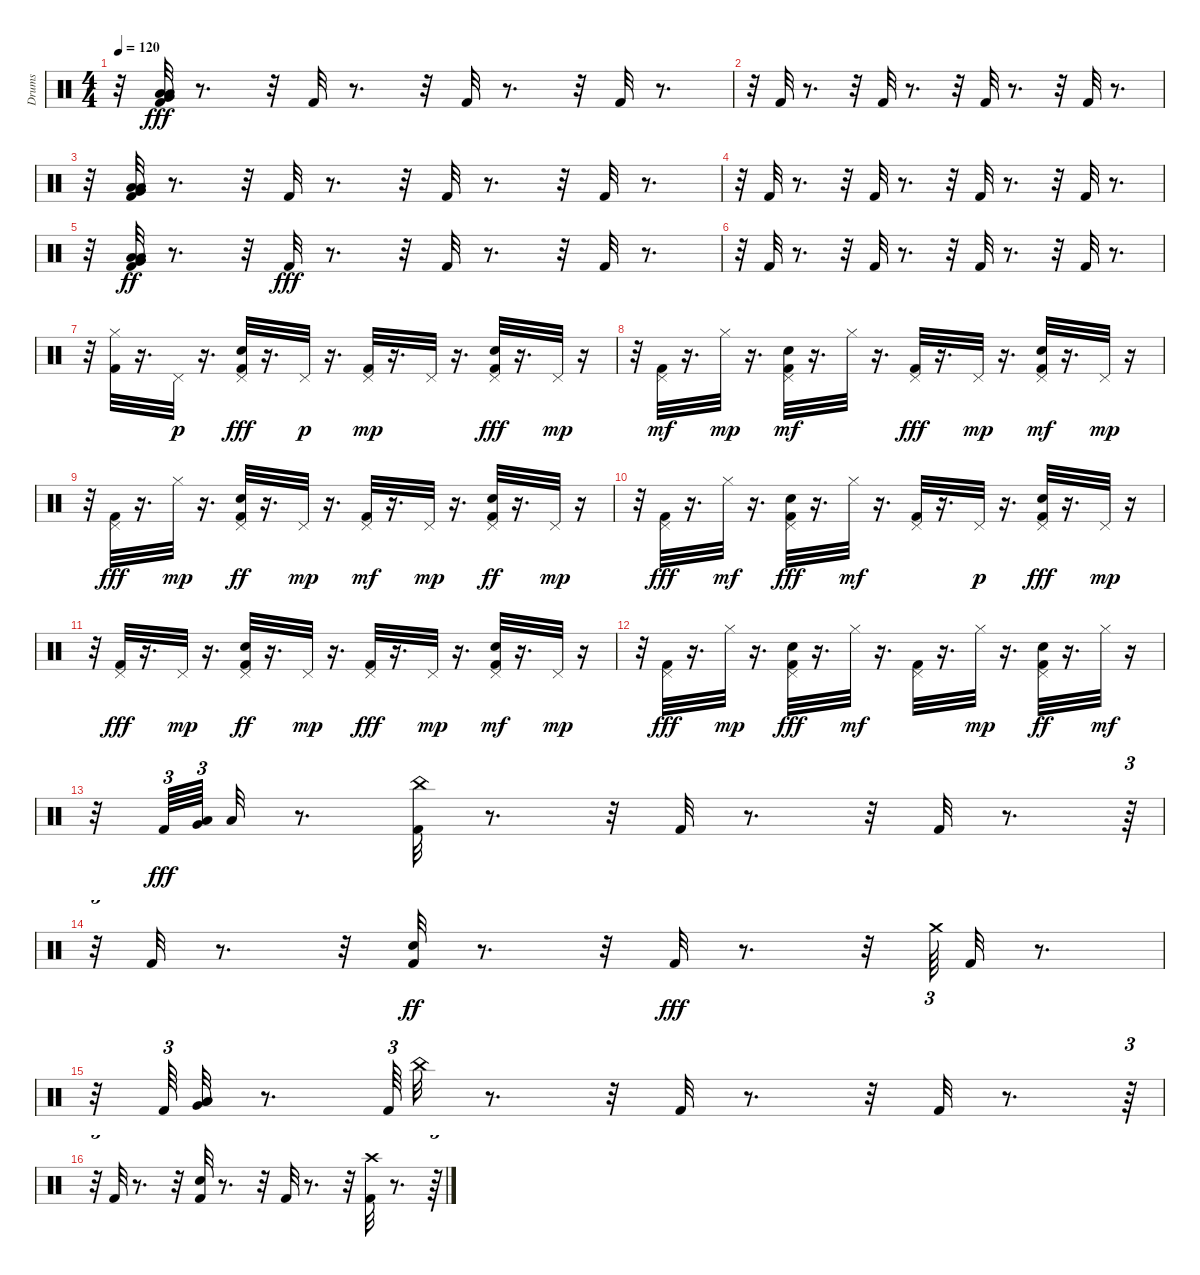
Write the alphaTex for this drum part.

\track ("Drums" "Drums") {instrument percussion}
\staff {score}
\articulation defaults
\ts (4 4)
\tempo 120
\clef neutral
\ks c
r.32{dy fff} ("Low Tom (hit)" "Kick (hit) 2" "Low Floor Tom (hit)" "Very Low Tom (hit)").32 r.8{d} r.32 "Kick (hit) 2".32 r.8{d} r.32 "Kick (hit) 2".32 r.8{d} r.32 "Kick (hit) 2".32 r.8{d} |
r.32 "Kick (hit) 2".32 r.8{d} r.32 "Kick (hit) 2".32 r.8{d} r.32 "Kick (hit) 2".32 r.8{d} r.32 "Kick (hit) 2".32 r.8{d} |
r.32 ("Kick (hit) 2" "Low Floor Tom (hit)" "Low Tom (hit)" "Very Low Tom (hit)").32 r.8{d} r.32 "Kick (hit) 2".32 r.8{d} r.32 "Kick (hit) 2".32 r.8{d} r.32 "Kick (hit) 2".32 r.8{d} |
r.32 "Kick (hit) 2".32 r.8{d} r.32 "Kick (hit) 2".32 r.8{d} r.32 "Kick (hit) 2".32 r.8{d} r.32 "Kick (hit) 2".32 r.8{d} |
r.32 ("Kick (hit) 2" "Very Low Tom (hit)" "Low Tom (hit)" "Low Floor Tom (hit)").32{dy ff} r.8{d} r.32 "Kick (hit) 2".32{dy fff} r.8{d} r.32 "Kick (hit) 2".32 r.8{d} r.32 "Kick (hit) 2".32 r.8{d} |
r.32 "Kick (hit) 2".32 r.8{d} r.32 "Kick (hit) 2".32 r.8{d} r.32 "Kick (hit) 2".32 r.8{d} r.32 "Kick (hit) 2".32 r.8{d} |
r.32 ("Hi-Hat (closed)" "Kick (hit) 2").32 r.16{d} "Pedal Hi-Hat (hit)".32{dy p} r.16{d} ("Snare (hit) 2" "Pedal Hi-Hat (hit)" "Kick (hit) 2").32{dy fff} r.16{d} "Pedal Hi-Hat (hit)".32{dy p} r.16{d} ("Kick (hit) 2" "Pedal Hi-Hat (hit)").32{dy mp} r.16{d} "Pedal Hi-Hat (hit)".32 r.16{d} ("Snare (hit) 2" "Pedal Hi-Hat (hit)" "Kick (hit) 2").32{dy fff} r.16{d} "Pedal Hi-Hat (hit)".32{dy mp} r.16 |
r.32 ("Kick (hit) 2" "Pedal Hi-Hat (hit)").32{dy mf} r.16{d} "Hi-Hat (closed)".32{dy mp} r.16{d} ("Snare (hit) 2" "Kick (hit) 2" "Pedal Hi-Hat (hit)").32{dy mf} r.16{d} "Hi-Hat (closed)".32 r.16{d} ("Pedal Hi-Hat (hit)" "Kick (hit) 2").32{dy fff} r.16{d} "Pedal Hi-Hat (hit)".32{dy mp} r.16{d} ("Snare (hit) 2" "Kick (hit) 2" "Pedal Hi-Hat (hit)").32{dy mf} r.16{d} "Pedal Hi-Hat (hit)".32{dy mp} r.16 |
r.32 ("Pedal Hi-Hat (hit)" "Kick (hit) 2").32{dy fff} r.16{d} "Hi-Hat (closed)".32{dy mp} r.16{d} ("Kick (hit) 2" "Pedal Hi-Hat (hit)" "Snare (hit) 2").32{dy ff} r.16{d} "Pedal Hi-Hat (hit)".32{dy mp} r.16{d} ("Kick (hit) 2" "Pedal Hi-Hat (hit)").32{dy mf} r.16{d} "Pedal Hi-Hat (hit)".32{dy mp} r.16{d} ("Kick (hit) 2" "Pedal Hi-Hat (hit)" "Snare (hit) 2").32{dy ff} r.16{d} "Pedal Hi-Hat (hit)".32{dy mp} r.16 |
r.32 ("Kick (hit) 2" "Pedal Hi-Hat (hit)").32{dy fff} r.16{d} "Hi-Hat (closed)".32{dy mf} r.16{d} ("Pedal Hi-Hat (hit)" "Snare (hit) 2" "Kick (hit) 2").32{dy fff} r.16{d} "Hi-Hat (closed)".32{dy mf} r.16{d} ("Kick (hit) 2" "Pedal Hi-Hat (hit)").32 r.16{d} "Pedal Hi-Hat (hit)".32{dy p} r.16{d} ("Pedal Hi-Hat (hit)" "Snare (hit) 2" "Kick (hit) 2").32{dy fff} r.16{d} "Pedal Hi-Hat (hit)".32{dy mp} r.16 |
r.32 ("Pedal Hi-Hat (hit)" "Kick (hit) 2").32{dy fff} r.16{d} "Pedal Hi-Hat (hit)".32{dy mp} r.16{d} ("Pedal Hi-Hat (hit)" "Kick (hit) 2" "Snare (hit) 2").32{dy ff} r.16{d} "Pedal Hi-Hat (hit)".32{dy mp} r.16{d} ("Pedal Hi-Hat (hit)" "Kick (hit) 2").32{dy fff} r.16{d} "Pedal Hi-Hat (hit)".32{dy mp} r.16{d} ("Kick (hit) 2" "Snare (hit) 2" "Pedal Hi-Hat (hit)").32{dy mf} r.16{d} "Pedal Hi-Hat (hit)".32{dy mp} r.16 |
r.32 ("Kick (hit) 2" "Pedal Hi-Hat (hit)").32{dy fff} r.16{d} "Hi-Hat (closed)".32{dy mp} r.16{d} ("Snare (hit) 2" "Pedal Hi-Hat (hit)" "Kick (hit) 2").32{dy fff} r.16{d} "Hi-Hat (closed)".32{dy mf} r.16{d} ("Kick (hit) 2" "Pedal Hi-Hat (hit)").32 r.16{d} "Hi-Hat (closed)".32{dy mp} r.16{d} ("Kick (hit) 2" "Pedal Hi-Hat (hit)" "Snare (hit) 2").32{dy ff} r.16{d} "Hi-Hat (closed)".32{dy mf} r.16 |
r.32 "Kick (hit) 2".64{tu (3 2) dy fff} ("Very Low Tom (hit)" "Low Tom (hit)").64{tu (3 2) beam splitsecondary} "Low Floor Tom (hit)".32 r.8{d} ("China (hit)" "Kick (hit) 2").32 r.8{d} r.32 "Kick (hit) 2".32 r.8{d} r.32 "Kick (hit) 2".32 r.8{d} r.64{tu (3 2)} |
r.32{tu (3 2)} "Kick (hit) 2".32 r.8{d} r.32 ("Kick (hit) 2" "Snare (hit) 2").32{dy ff} r.8{d} r.32 "Kick (hit) 2".32{dy fff} r.8{d} r.32 "Crash medium (hit)".64{tu (3 2)} "Kick (hit) 2".32 r.8{d} |
r.32 "Kick (hit) 2".64{tu (3 2)} ("Low Floor Tom (hit)" "Very Low Tom (hit)" "Low Tom (hit)").32 r.8{d} "Kick (hit) 2".64{tu (3 2)} "China (hit)".32 r.8{d} r.32 "Kick (hit) 2".32 r.8{d} r.32 "Kick (hit) 2".32 r.8{d} r.64{tu (3 2)} |
r.32{tu (3 2)} "Kick (hit) 2".32 r.8{d} r.32 ("Snare (hit) 2" "Kick (hit) 2").32 r.8{d} r.32 "Kick (hit) 2".32 r.8{d} r.32 ("Kick (hit) 2" "Crash high (hit)").32 r.8{d} r.64{tu (3 2)}
